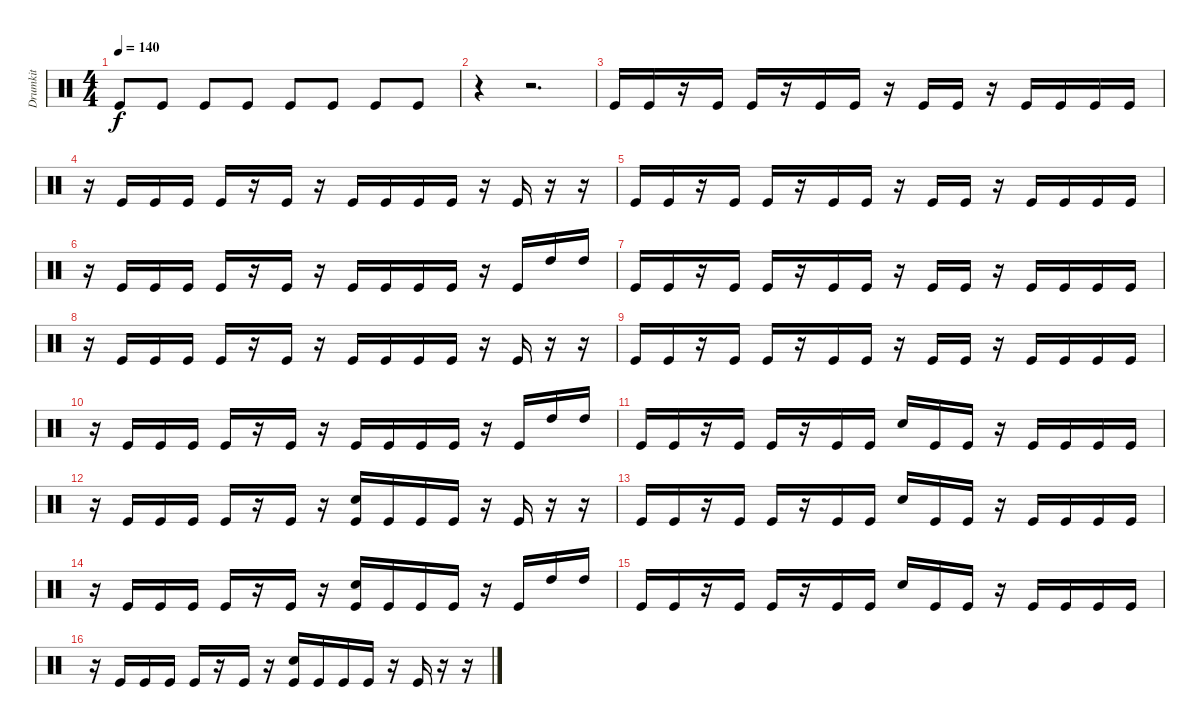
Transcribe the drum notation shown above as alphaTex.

\track ("Drumkit" "Drumkit") {instrument percussion}
\staff {score}
\articulation defaults
\ts (4 4)
\tempo 140
\clef neutral
\ks c "Kick (hit)".8{dy f} "Kick (hit)".8 "Kick (hit)".8 "Kick (hit)".8 "Kick (hit)".8 "Kick (hit)".8 "Kick (hit)".8 "Kick (hit)".8
|
r.4 r.2{d} |
"Kick (hit)".16 "Kick (hit)".16 r.16 "Kick (hit)".16 "Kick (hit)".16 r.16 "Kick (hit)".16 "Kick (hit)".16 r.16 "Kick (hit)".16 "Kick (hit)".16 r.16 "Kick (hit)".16 "Kick (hit)".16 "Kick (hit)".16 "Kick (hit)".16 |
r.16 "Kick (hit)".16 "Kick (hit)".16 "Kick (hit)".16 "Kick (hit)".16 r.16 "Kick (hit)".16 r.16 "Kick (hit)".16 "Kick (hit)".16 "Kick (hit)".16 "Kick (hit)".16 r.16 "Kick (hit)".16 r.16 r.16 |
"Kick (hit)".16 "Kick (hit)".16 r.16 "Kick (hit)".16 "Kick (hit)".16 r.16 "Kick (hit)".16 "Kick (hit)".16 r.16 "Kick (hit)".16 "Kick (hit)".16 r.16 "Kick (hit)".16 "Kick (hit)".16 "Kick (hit)".16 "Kick (hit)".16 |
r.16 "Kick (hit)".16 "Kick (hit)".16 "Kick (hit)".16 "Kick (hit)".16 r.16 "Kick (hit)".16 r.16 "Kick (hit)".16 "Kick (hit)".16 "Kick (hit)".16 "Kick (hit)".16 r.16 "Kick (hit)".16 "High Tom (hit)".16 "High Tom (hit)".16 |
"Kick (hit)".16 "Kick (hit)".16 r.16 "Kick (hit)".16 "Kick (hit)".16 r.16 "Kick (hit)".16 "Kick (hit)".16 r.16 "Kick (hit)".16 "Kick (hit)".16 r.16 "Kick (hit)".16 "Kick (hit)".16 "Kick (hit)".16 "Kick (hit)".16 |
r.16 "Kick (hit)".16 "Kick (hit)".16 "Kick (hit)".16 "Kick (hit)".16 r.16 "Kick (hit)".16 r.16 "Kick (hit)".16 "Kick (hit)".16 "Kick (hit)".16 "Kick (hit)".16 r.16 "Kick (hit)".16 r.16 r.16 |
"Kick (hit)".16 "Kick (hit)".16 r.16 "Kick (hit)".16 "Kick (hit)".16 r.16 "Kick (hit)".16 "Kick (hit)".16 r.16 "Kick (hit)".16 "Kick (hit)".16 r.16 "Kick (hit)".16 "Kick (hit)".16 "Kick (hit)".16 "Kick (hit)".16 |
r.16 "Kick (hit)".16 "Kick (hit)".16 "Kick (hit)".16 "Kick (hit)".16 r.16 "Kick (hit)".16 r.16 "Kick (hit)".16 "Kick (hit)".16 "Kick (hit)".16 "Kick (hit)".16 r.16 "Kick (hit)".16 "High Tom (hit)".16 "High Tom (hit)".16 |
"Kick (hit)".16 "Kick (hit)".16 r.16 "Kick (hit)".16 "Kick (hit)".16 r.16 "Kick (hit)".16 "Kick (hit)".16 "Snare (hit) 2".16 "Kick (hit)".16 "Kick (hit)".16 r.16 "Kick (hit)".16 "Kick (hit)".16 "Kick (hit)".16 "Kick (hit)".16 |
r.16 "Kick (hit)".16 "Kick (hit)".16 "Kick (hit)".16 "Kick (hit)".16 r.16 "Kick (hit)".16 r.16 ("Kick (hit)" "Snare (hit) 2").16 "Kick (hit)".16 "Kick (hit)".16 "Kick (hit)".16 r.16 "Kick (hit)".16 r.16 r.16 |
"Kick (hit)".16 "Kick (hit)".16 r.16 "Kick (hit)".16 "Kick (hit)".16 r.16 "Kick (hit)".16 "Kick (hit)".16 "Snare (hit) 2".16 "Kick (hit)".16 "Kick (hit)".16 r.16 "Kick (hit)".16 "Kick (hit)".16 "Kick (hit)".16 "Kick (hit)".16 |
r.16 "Kick (hit)".16 "Kick (hit)".16 "Kick (hit)".16 "Kick (hit)".16 r.16 "Kick (hit)".16 r.16 ("Kick (hit)" "Snare (hit) 2").16 "Kick (hit)".16 "Kick (hit)".16 "Kick (hit)".16 r.16 "Kick (hit)".16 "High Tom (hit)".16 "High Tom (hit)".16 |
"Kick (hit)".16 "Kick (hit)".16 r.16 "Kick (hit)".16 "Kick (hit)".16 r.16 "Kick (hit)".16 "Kick (hit)".16 "Snare (hit) 2".16 "Kick (hit)".16 "Kick (hit)".16 r.16 "Kick (hit)".16 "Kick (hit)".16 "Kick (hit)".16 "Kick (hit)".16 |
r.16 "Kick (hit)".16 "Kick (hit)".16 "Kick (hit)".16 "Kick (hit)".16 r.16 "Kick (hit)".16 r.16 ("Kick (hit)" "Snare (hit) 2").16 "Kick (hit)".16 "Kick (hit)".16 "Kick (hit)".16 r.16 "Kick (hit)".16 r.16 r.16
